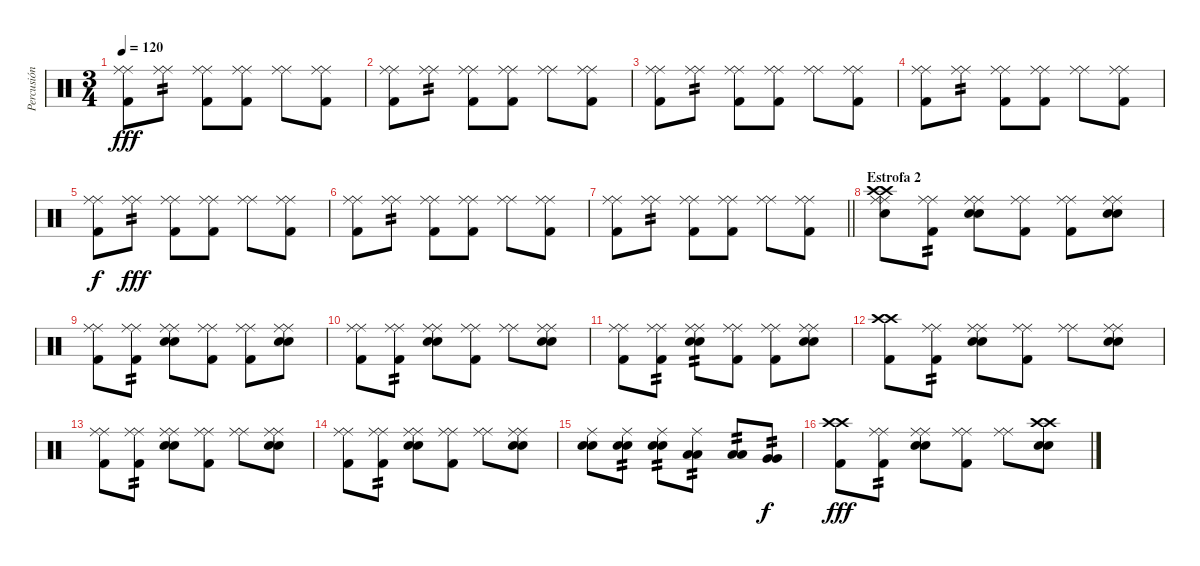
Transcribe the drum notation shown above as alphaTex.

\track ("Percusión" "Percusión") {instrument percussion}
\staff {score}
\articulation defaults
\ts (3 4)
\tempo 120
\clef neutral
\ks c
("Ride (middle)" "Ride (middle)" "Kick (hit) 2").8{dy fff} ("Ride (middle)" "Ride (middle)").8{tp 2} ("Ride (middle)" "Ride (middle)" "Kick (hit) 2").8 ("Ride (middle)" "Ride (middle)" "Kick (hit) 2").8 ("Ride (middle)" "Ride (middle)").8 ("Ride (middle)" "Ride (middle)" "Kick (hit) 2").8 |
("Ride (middle)" "Ride (middle)" "Kick (hit) 2").8 ("Ride (middle)" "Ride (middle)").8{tp 2} ("Ride (middle)" "Ride (middle)" "Kick (hit) 2").8 ("Ride (middle)" "Ride (middle)" "Kick (hit) 2").8 ("Ride (middle)" "Ride (middle)").8 ("Ride (middle)" "Ride (middle)" "Kick (hit) 2").8 |
("Ride (middle)" "Ride (middle)" "Kick (hit) 2").8 ("Ride (middle)" "Ride (middle)").8{tp 2} ("Ride (middle)" "Ride (middle)" "Kick (hit) 2").8 ("Ride (middle)" "Ride (middle)" "Kick (hit) 2").8 ("Ride (middle)" "Ride (middle)").8 ("Ride (middle)" "Ride (middle)" "Kick (hit) 2").8 |
("Ride (middle)" "Ride (middle)" "Kick (hit) 2").8 ("Ride (middle)" "Ride (middle)").8{tp 2} ("Ride (middle)" "Ride (middle)" "Kick (hit) 2").8 ("Ride (middle)" "Ride (middle)" "Kick (hit) 2").8 ("Ride (middle)" "Ride (middle)").8 ("Ride (middle)" "Ride (middle)" "Kick (hit) 2").8 |
("Ride (middle)" "Ride (middle)" "Kick (hit) 2").8{dy f} ("Ride (middle)" "Ride (middle)").8{tp 2 dy fff} ("Ride (middle)" "Ride (middle)" "Kick (hit) 2").8 ("Ride (middle)" "Ride (middle)" "Kick (hit) 2").8 ("Ride (middle)" "Ride (middle)").8 ("Ride (middle)" "Ride (middle)" "Kick (hit) 2").8 |
("Ride (middle)" "Ride (middle)" "Kick (hit) 2").8 ("Ride (middle)" "Ride (middle)").8{tp 2} ("Ride (middle)" "Ride (middle)" "Kick (hit) 2").8 ("Ride (middle)" "Ride (middle)" "Kick (hit) 2").8 ("Ride (middle)" "Ride (middle)").8 ("Ride (middle)" "Ride (middle)" "Kick (hit) 2").8 |
\barLineRight lightlight
("Ride (middle)" "Ride (middle)" "Kick (hit) 2").8 ("Ride (middle)" "Ride (middle)").8{tp 2} ("Ride (middle)" "Ride (middle)" "Kick (hit) 2").8 ("Ride (middle)" "Ride (middle)" "Kick (hit) 2").8 ("Ride (middle)" "Ride (middle)").8 ("Ride (middle)" "Ride (middle)" "Kick (hit) 2").8 |
\section ("" "Estrofa 2")
("Ride (middle)" "Ride (middle)" "Crash high (hit)" "Crash high (hit)" "Electric Snare (hit)").8 ("Ride (middle)" "Ride (middle)" "Kick (hit) 2").8{tp 2} ("Ride (middle)" "Ride (middle)" "Electric Snare (hit)" "Electric Snare (hit)").8 ("Ride (middle)" "Ride (middle)" "Kick (hit) 2").8 ("Ride (middle)" "Ride (middle)" "Kick (hit) 2").8 ("Ride (middle)" "Ride (middle)" "Electric Snare (hit)" "Electric Snare (hit)").8 |
("Ride (middle)" "Ride (middle)" "Kick (hit) 2").8 ("Ride (middle)" "Ride (middle)" "Kick (hit) 2").8{tp 2} ("Ride (middle)" "Ride (middle)" "Electric Snare (hit)" "Electric Snare (hit)").8 ("Ride (middle)" "Ride (middle)" "Kick (hit) 2").8 ("Ride (middle)" "Ride (middle)" "Kick (hit) 2").8 ("Ride (middle)" "Ride (middle)" "Electric Snare (hit)" "Electric Snare (hit)").8 |
("Ride (middle)" "Ride (middle)" "Kick (hit) 2").8 ("Ride (middle)" "Ride (middle)" "Kick (hit) 2").8{tp 2} ("Ride (middle)" "Ride (middle)" "Electric Snare (hit)" "Electric Snare (hit)").8 ("Ride (middle)" "Ride (middle)" "Kick (hit) 2").8 ("Ride (middle)" "Ride (middle)").8 ("Ride (middle)" "Ride (middle)" "Electric Snare (hit)" "Electric Snare (hit)").8 |
("Ride (middle)" "Ride (middle)" "Kick (hit) 2").8 ("Ride (middle)" "Ride (middle)" "Kick (hit) 2").8{tp 2} ("Ride (middle)" "Ride (middle)" "Electric Snare (hit)" "Electric Snare (hit)").8{tp 2} ("Ride (middle)" "Ride (middle)" "Kick (hit) 2").8 ("Ride (middle)" "Ride (middle)" "Kick (hit) 2").8 ("Ride (middle)" "Ride (middle)" "Electric Snare (hit)" "Electric Snare (hit)").8 |
("Crash high (hit)" "Crash high (hit)" "Kick (hit) 2").8 ("Ride (middle)" "Ride (middle)" "Kick (hit) 2").8{tp 2} ("Ride (middle)" "Ride (middle)" "Electric Snare (hit)" "Electric Snare (hit)").8 ("Ride (middle)" "Ride (middle)" "Kick (hit) 2").8 ("Ride (middle)" "Ride (middle)").8 ("Ride (middle)" "Ride (middle)" "Electric Snare (hit)" "Electric Snare (hit)").8 |
("Ride (middle)" "Ride (middle)" "Kick (hit) 2").8 ("Ride (middle)" "Ride (middle)" "Kick (hit) 2").8{tp 2} ("Ride (middle)" "Ride (middle)" "Electric Snare (hit)" "Electric Snare (hit)").8 ("Ride (middle)" "Ride (middle)" "Kick (hit) 2").8 ("Ride (middle)" "Ride (middle)").8 ("Ride (middle)" "Ride (middle)" "Electric Snare (hit)" "Electric Snare (hit)").8 |
("Ride (middle)" "Ride (middle)" "Kick (hit) 2").8 ("Ride (middle)" "Ride (middle)" "Kick (hit) 2").8{tp 2} ("Ride (middle)" "Ride (middle)" "Electric Snare (hit)" "Electric Snare (hit)").8 ("Ride (middle)" "Ride (middle)" "Kick (hit) 2").8 ("Ride (middle)" "Ride (middle)").8 ("Ride (middle)" "Ride (middle)" "Electric Snare (hit)" "Electric Snare (hit)").8 |
("Ride (middle)" "Electric Snare (hit)" "Electric Snare (hit)").8 ("Ride (middle)" "Electric Snare (hit)" "Electric Snare (hit)").8{tp 2} ("Ride (middle)" "Electric Snare (hit)" "Electric Snare (hit)").8{tp 2} ("Ride (middle)" "Low Tom (hit)" "Low Tom (hit)").8{tp 2} ("Low Tom (hit)" "Low Tom (hit)").8{tp 2} ("Very Low Tom (hit)" "Very Low Tom (hit)").8{tp 2 dy f} |
("Crash high (hit)" "Crash high (hit)" "Kick (hit) 2").8{dy fff} ("Ride (middle)" "Ride (middle)" "Kick (hit) 2").8{tp 2} ("Ride (middle)" "Ride (middle)" "Electric Snare (hit)" "Electric Snare (hit)").8 ("Ride (middle)" "Ride (middle)" "Kick (hit) 2").8 ("Ride (middle)" "Ride (middle)").8 ("Crash high (hit)" "Crash high (hit)" "Electric Snare (hit)" "Electric Snare (hit)").8
